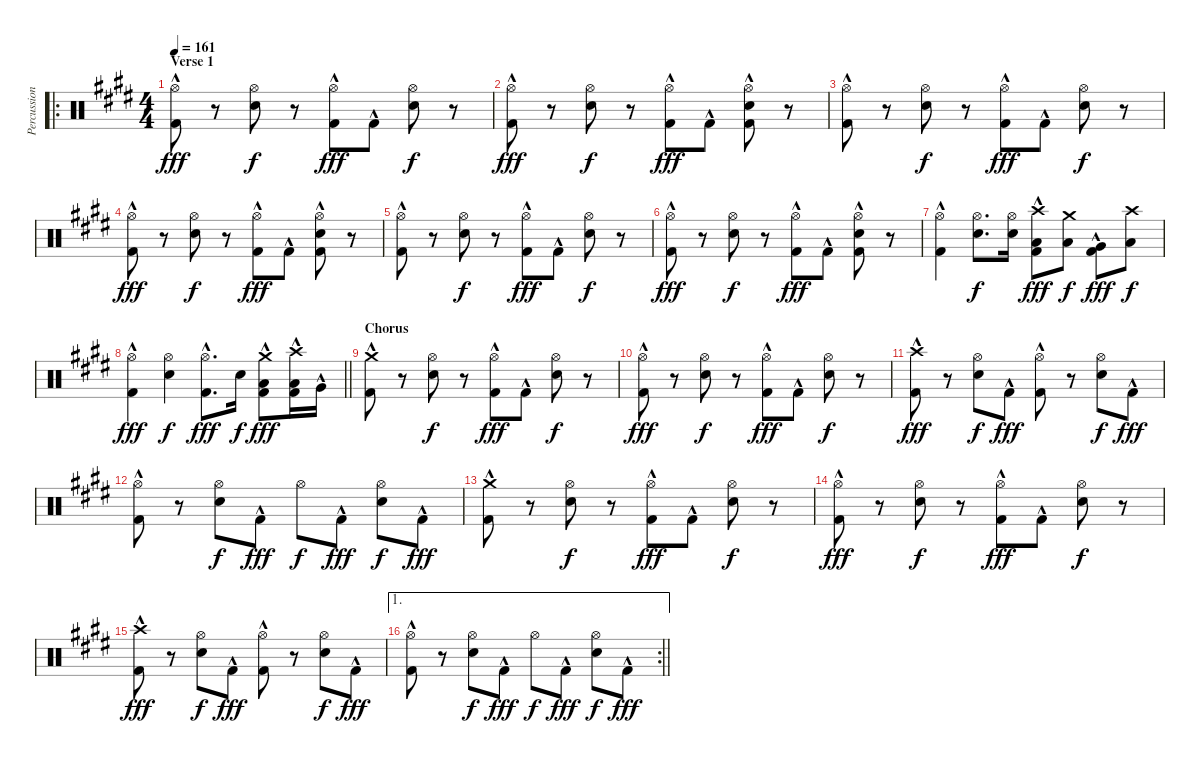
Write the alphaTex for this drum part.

\track ("Percussion" "Percussion") {instrument percussion}
\staff
\articulation defaults
\ro
\ts (4 4)
\section ("" "Verse 1")
\tempo 161
\clef neutral
\ks e
("Hi-Hat (open)" "Kick (hit) 2"{hac}).8{dy fff} r.8 ("Hi-Hat (open)" "Snare (hit) 2").8{dy f} r.8 ("Hi-Hat (open)" "Kick (hit) 2"{hac}).8{dy fff} "Kick (hit) 2"{hac}.8 ("Hi-Hat (open)" "Snare (hit) 2").8{dy f} r.8 |
("Hi-Hat (open)" "Kick (hit) 2"{hac}).8{dy fff} r.8 ("Hi-Hat (open)" "Snare (hit) 2").8{dy f} r.8 ("Hi-Hat (open)" "Kick (hit) 2"{hac}).8{dy fff} "Kick (hit) 2"{hac}.8 ("Hi-Hat (open)" "Snare (hit) 2" "Kick (hit) 2"{hac}).8 r.8 |
("Hi-Hat (open)" "Kick (hit) 2"{hac}).8 r.8 ("Hi-Hat (open)" "Snare (hit) 2").8{dy f} r.8 ("Hi-Hat (open)" "Kick (hit) 2"{hac}).8{dy fff} "Kick (hit) 2"{hac}.8 ("Hi-Hat (open)" "Snare (hit) 2").8{dy f} r.8 |
("Hi-Hat (open)" "Kick (hit) 2"{hac}).8{dy fff} r.8 ("Hi-Hat (open)" "Snare (hit) 2").8{dy f} r.8 ("Hi-Hat (open)" "Kick (hit) 2"{hac}).8{dy fff} "Kick (hit) 2"{hac}.8 ("Hi-Hat (open)" "Snare (hit) 2" "Kick (hit) 2"{hac}).8 r.8 |
("Hi-Hat (open)" "Kick (hit) 2"{hac}).8 r.8 ("Hi-Hat (open)" "Snare (hit) 2").8{dy f} r.8 ("Hi-Hat (open)" "Kick (hit) 2"{hac}).8{dy fff} "Kick (hit) 2"{hac}.8 ("Hi-Hat (open)" "Snare (hit) 2").8{dy f} r.8 |
("Hi-Hat (open)" "Kick (hit) 2"{hac}).8{dy fff} r.8 ("Hi-Hat (open)" "Snare (hit) 2").8{dy f} r.8 ("Hi-Hat (open)" "Kick (hit) 2"{hac}).8{dy fff} "Kick (hit) 2"{hac}.8 ("Hi-Hat (open)" "Snare (hit) 2" "Kick (hit) 2"{hac}).8 r.8 |
("Hi-Hat (open)" "Kick (hit) 2"{hac}).4 ("Hi-Hat (open)" "Snare (hit) 2").8{d dy f} ("Hi-Hat (open)" "Snare (hit) 2").16 ("Crash high (hit)" "Low Tom (hit)" "Kick (hit) 2"{hac}).8{dy fff} ("Crash medium (hit)" "Low Tom (hit)").8{dy f} ("Very Low Tom (hit)" "Kick (hit) 2"{hac}).8{dy fff} ("Crash high (hit)" "Low Floor Tom (hit)").8{dy f} |
\barLineRight lightlight
("Hi-Hat (open)" "Kick (hit) 2"{hac}).4{dy fff} ("Hi-Hat (open)" "Snare (hit) 2").4{dy f} ("Hi-Hat (open)" "Kick (hit) 2"{hac}).8{d dy fff} "Snare (hit) 2".16{dy f} ("Crash medium (hit)" "Low Tom (hit)" "Kick (hit) 2"{hac}).8{dy fff} ("Crash high (hit)"{hac} "Low Tom (hit)"{hac} "Kick (hit) 2"{hac}).16 "Very Low Tom (hit)"{hac}.16 |
\section ("" "Chorus")
("Crash medium (hit)" "Kick (hit) 2"{hac}).8 r.8 ("Hi-Hat (open)" "Snare (hit) 2").8{dy f} r.8 ("Hi-Hat (open)" "Kick (hit) 2"{hac}).8{dy fff} "Kick (hit) 2"{hac}.8 ("Hi-Hat (open)" "Snare (hit) 2").8{dy f} r.8 |
("Hi-Hat (open)" "Kick (hit) 2"{hac}).8{dy fff} r.8 ("Hi-Hat (open)" "Snare (hit) 2").8{dy f} r.8 ("Hi-Hat (open)" "Kick (hit) 2"{hac}).8{dy fff} "Kick (hit) 2"{hac}.8 ("Hi-Hat (open)" "Snare (hit) 2").8{dy f} r.8 |
("Crash high (hit)" "Kick (hit) 2"{hac}).8{dy fff} r.8 ("Hi-Hat (open)" "Snare (hit) 2").8{dy f} "Kick (hit) 2"{hac}.8{dy fff} ("Hi-Hat (open)" "Kick (hit) 2"{hac}).8 r.8 ("Hi-Hat (open)" "Snare (hit) 2").8{dy f} "Kick (hit) 2"{hac}.8{dy fff} |
("Hi-Hat (open)" "Kick (hit) 2"{hac}).8 r.8 ("Hi-Hat (open)" "Snare (hit) 2").8{dy f} "Kick (hit) 2"{hac}.8{dy fff} "Hi-Hat (open)".8{dy f} "Kick (hit) 2"{hac}.8{dy fff} ("Hi-Hat (open)" "Snare (hit) 2").8{dy f} "Kick (hit) 2"{hac}.8{dy fff} |
("Crash medium (hit)" "Kick (hit) 2"{hac}).8 r.8 ("Hi-Hat (open)" "Snare (hit) 2").8{dy f} r.8 ("Hi-Hat (open)" "Kick (hit) 2"{hac}).8{dy fff} "Kick (hit) 2"{hac}.8 ("Hi-Hat (open)" "Snare (hit) 2").8{dy f} r.8 |
("Hi-Hat (open)" "Kick (hit) 2"{hac}).8{dy fff} r.8 ("Hi-Hat (open)" "Snare (hit) 2").8{dy f} r.8 ("Hi-Hat (open)" "Kick (hit) 2"{hac}).8{dy fff} "Kick (hit) 2"{hac}.8 ("Hi-Hat (open)" "Snare (hit) 2").8{dy f} r.8 |
("Crash high (hit)" "Kick (hit) 2"{hac}).8{dy fff} r.8 ("Hi-Hat (open)" "Snare (hit) 2").8{dy f} "Kick (hit) 2"{hac}.8{dy fff} ("Hi-Hat (open)" "Kick (hit) 2"{hac}).8 r.8 ("Hi-Hat (open)" "Snare (hit) 2").8{dy f} "Kick (hit) 2"{hac}.8{dy fff} |
\ae 1
\rc 2
\barLineRight lightlight
("Hi-Hat (open)" "Kick (hit) 2"{hac}).8 r.8 ("Hi-Hat (open)" "Snare (hit) 2").8{dy f} "Kick (hit) 2"{hac}.8{dy fff} "Hi-Hat (open)".8{dy f} "Kick (hit) 2"{hac}.8{dy fff} ("Hi-Hat (open)" "Snare (hit) 2").8{dy f} "Kick (hit) 2"{hac}.8{dy fff}
